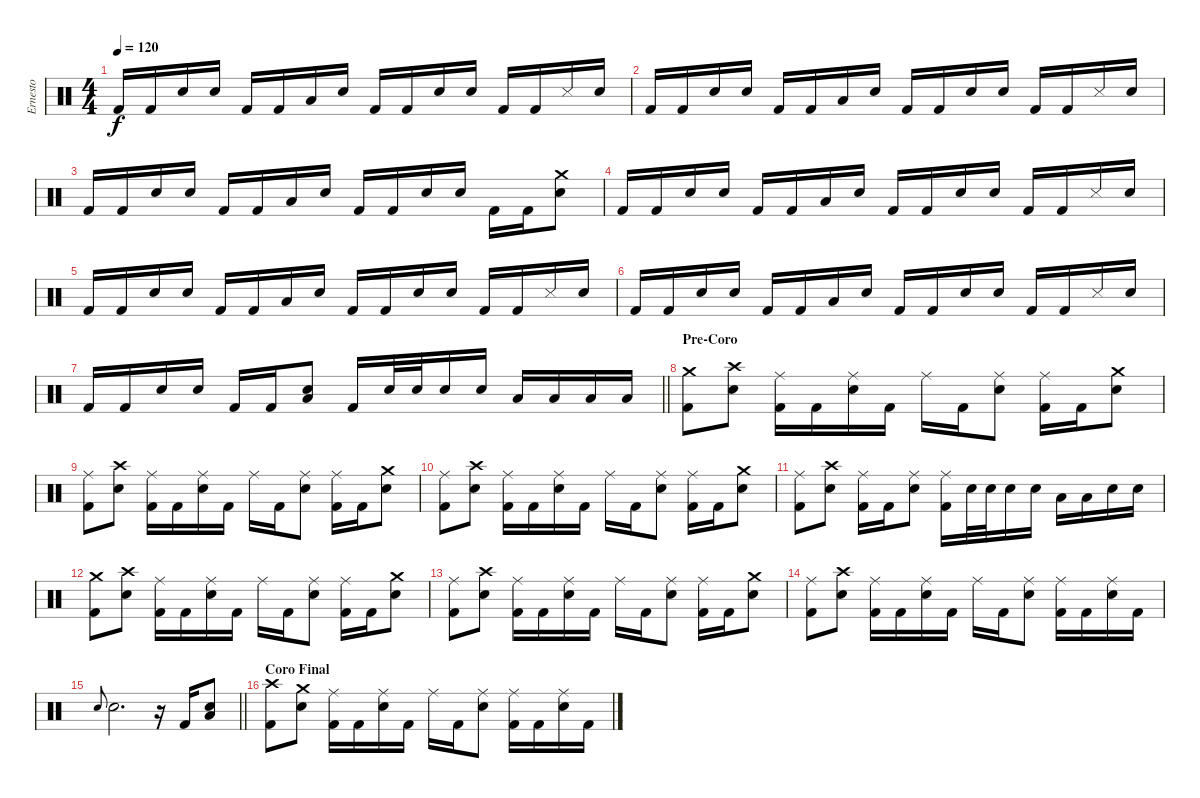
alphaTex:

\track ("Ernesto" "Ernesto") {instrument percussion}
\staff
\articulation defaults
\ts (4 4)
\tempo 120
\clef neutral
\ks c "Kick (hit) 2".16{dy f} "Kick (hit) 2".16 "Electric Snare (hit)".16 "Electric Snare (hit)".16 "Kick (hit) 2".16 "Kick (hit) 2".16 "Low Tom (hit)".16 "Electric Snare (hit)".16 "Kick (hit) 2".16 "Kick (hit) 2".16 "Electric Snare (hit)".16 "Electric Snare (hit)".16 "Kick (hit) 2".16 "Kick (hit) 2".16 "Snare (side stick) 3".16 "Electric Snare (hit)".16
|
"Kick (hit) 2".16 "Kick (hit) 2".16 "Electric Snare (hit)".16 "Electric Snare (hit)".16 "Kick (hit) 2".16 "Kick (hit) 2".16 "Low Tom (hit)".16 "Electric Snare (hit)".16 "Kick (hit) 2".16 "Kick (hit) 2".16 "Electric Snare (hit)".16 "Electric Snare (hit)".16 "Kick (hit) 2".16 "Kick (hit) 2".16 "Snare (side stick) 3".16 "Electric Snare (hit)".16 |
"Kick (hit) 2".16 "Kick (hit) 2".16 "Electric Snare (hit)".16 "Electric Snare (hit)".16 "Kick (hit) 2".16 "Kick (hit) 2".16 "Low Tom (hit)".16 "Electric Snare (hit)".16 "Kick (hit) 2".16 "Kick (hit) 2".16 "Electric Snare (hit)".16 "Electric Snare (hit)".16 "Kick (hit) 2".16 "Kick (hit) 2".16 ("Crash medium (hit)" "Electric Snare (hit)").8 |
"Kick (hit) 2".16 "Kick (hit) 2".16 "Electric Snare (hit)".16 "Electric Snare (hit)".16 "Kick (hit) 2".16 "Kick (hit) 2".16 "Low Tom (hit)".16 "Electric Snare (hit)".16 "Kick (hit) 2".16 "Kick (hit) 2".16 "Electric Snare (hit)".16 "Electric Snare (hit)".16 "Kick (hit) 2".16 "Kick (hit) 2".16 "Snare (side stick) 3".16 "Electric Snare (hit)".16 |
"Kick (hit) 2".16 "Kick (hit) 2".16 "Electric Snare (hit)".16 "Electric Snare (hit)".16 "Kick (hit) 2".16 "Kick (hit) 2".16 "Low Tom (hit)".16 "Electric Snare (hit)".16 "Kick (hit) 2".16 "Kick (hit) 2".16 "Electric Snare (hit)".16 "Electric Snare (hit)".16 "Kick (hit) 2".16 "Kick (hit) 2".16 "Snare (side stick) 3".16 "Electric Snare (hit)".16 |
"Kick (hit) 2".16 "Kick (hit) 2".16 "Electric Snare (hit)".16 "Electric Snare (hit)".16 "Kick (hit) 2".16 "Kick (hit) 2".16 "Low Tom (hit)".16 "Electric Snare (hit)".16 "Kick (hit) 2".16 "Kick (hit) 2".16 "Electric Snare (hit)".16 "Electric Snare (hit)".16 "Kick (hit) 2".16 "Kick (hit) 2".16 "Snare (side stick) 3".16 "Electric Snare (hit)".16 |
\barLineRight lightlight "Kick (hit) 2".16 "Kick (hit) 2".16 "Electric Snare (hit)".16 "Electric Snare (hit)".16 "Kick (hit) 2".16 "Kick (hit) 2".16
("Electric Snare (hit)" "Low Floor Tom (hit)").8 "Kick (hit) 2".16 "Electric Snare (hit)".32 "Electric Snare (hit)".32 "Electric Snare (hit)".16 "Electric Snare (hit)".16 "Low Tom (hit)".16 "Low Tom (hit)".16 "Low Floor Tom (hit)".16 "Low Floor Tom (hit)".16 |
\section ("" "Pre-Coro")
("Crash medium (hit)" "Kick (hit) 2").8 ("Crash high (hit)" "Electric Snare (hit)").8 ("Ride (middle)" "Kick (hit) 2").16 "Kick (hit) 2".16 ("Ride (middle)" "Electric Snare (hit)").16 "Kick (hit) 2".16 "Ride (middle)".16 "Kick (hit) 2".16 ("Ride (middle)" "Electric Snare (hit)").8 ("Ride (middle)" "Kick (hit) 2").16 "Kick (hit) 2".16 ("Crash medium (hit)" "Electric Snare (hit)").8 |
("Ride (middle)" "Kick (hit) 2").8 ("Crash high (hit)" "Electric Snare (hit)").8 ("Ride (middle)" "Kick (hit) 2").16 "Kick (hit) 2".16 ("Ride (middle)" "Electric Snare (hit)").16 "Kick (hit) 2".16 "Ride (middle)".16 "Kick (hit) 2".16 ("Ride (middle)" "Electric Snare (hit)").8 ("Ride (middle)" "Kick (hit) 2").16 "Kick (hit) 2".16 ("Crash medium (hit)" "Electric Snare (hit)").8 |
("Ride (middle)" "Kick (hit) 2").8 ("Crash high (hit)" "Electric Snare (hit)").8 ("Ride (middle)" "Kick (hit) 2").16 "Kick (hit) 2".16 ("Ride (middle)" "Electric Snare (hit)").16 "Kick (hit) 2".16 "Ride (middle)".16 "Kick (hit) 2".16 ("Ride (middle)" "Electric Snare (hit)").8 ("Ride (middle)" "Kick (hit) 2").16 "Kick (hit) 2".16 ("Crash medium (hit)" "Electric Snare (hit)").8 |
("Ride (middle)" "Kick (hit) 2").8 ("Crash high (hit)" "Electric Snare (hit)").8 ("Ride (middle)" "Kick (hit) 2").16 "Kick (hit) 2".16 ("Ride (middle)" "Electric Snare (hit)").8 ("Ride (middle)" "Kick (hit) 2").16 "Electric Snare (hit)".32 "Electric Snare (hit)".32 "Electric Snare (hit)".16 "Electric Snare (hit)".16 "Low Tom (hit)".16 "Low Tom (hit)".16 "Electric Snare (hit)".16 "Electric Snare (hit)".16 |
("Crash medium (hit)" "Kick (hit) 2").8 ("Crash high (hit)" "Electric Snare (hit)").8 ("Ride (middle)" "Kick (hit) 2").16 "Kick (hit) 2".16 ("Ride (middle)" "Electric Snare (hit)").16 "Kick (hit) 2".16 "Ride (middle)".16 "Kick (hit) 2".16 ("Ride (middle)" "Electric Snare (hit)").8 ("Ride (middle)" "Kick (hit) 2").16 "Kick (hit) 2".16 ("Crash medium (hit)" "Electric Snare (hit)").8 |
("Ride (middle)" "Kick (hit) 2").8 ("Crash high (hit)" "Electric Snare (hit)").8 ("Ride (middle)" "Kick (hit) 2").16 "Kick (hit) 2".16 ("Ride (middle)" "Electric Snare (hit)").16 "Kick (hit) 2".16 "Ride (middle)".16 "Kick (hit) 2".16 ("Ride (middle)" "Electric Snare (hit)").8 ("Ride (middle)" "Kick (hit) 2").16 "Kick (hit) 2".16 ("Crash medium (hit)" "Electric Snare (hit)").8 |
("Ride (middle)" "Kick (hit) 2").8 ("Crash high (hit)" "Electric Snare (hit)").8 ("Ride (middle)" "Kick (hit) 2").16 "Kick (hit) 2".16 ("Ride (middle)" "Electric Snare (hit)").16 "Kick (hit) 2".16 "Ride (middle)".16 "Kick (hit) 2".16 ("Ride (middle)" "Electric Snare (hit)").8 ("Ride (middle)" "Kick (hit) 2").16 "Kick (hit) 2".16 ("Ride (middle)" "Electric Snare (hit)").16 "Kick (hit) 2".16 |
\barLineRight lightlight "Electric Snare (hit)".8{gr onbeat} "Electric Snare (hit)".2{d}
r.16 "Kick (hit) 2".16 ("Electric Snare (hit)" "Low Floor Tom (hit)").8 |
\section ("" "Coro Final")
("Crash high (hit)" "Kick (hit) 2").8 ("Crash medium (hit)" "Electric Snare (hit)").8 ("Ride (middle)" "Kick (hit) 2").16 "Kick (hit) 2".16 ("Ride (middle)" "Electric Snare (hit)").16 "Kick (hit) 2".16 "Ride (middle)".16 "Kick (hit) 2".16 ("Ride (middle)" "Electric Snare (hit)").8 ("Ride (middle)" "Kick (hit) 2").16 "Kick (hit) 2".16 ("Ride (middle)" "Electric Snare (hit)").16 "Kick (hit) 2".16
